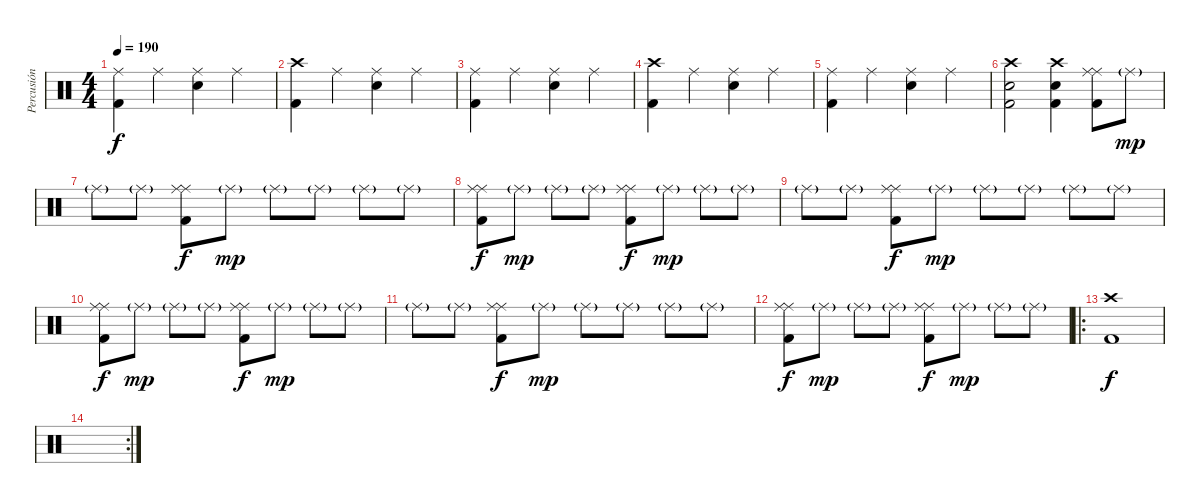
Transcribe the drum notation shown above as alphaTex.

\track ("Percusión" "Percusión") {instrument percussion}
\staff {score}
\articulation defaults
\ts (4 4)
\tempo 190
\clef neutral
\ks c
("Kick (hit) 2" "Ride (middle)").4{dy f} "Ride (middle)".4 ("Snare (hit) 2" "Ride (middle)").4 "Ride (middle)".4 |
("Kick (hit) 2" "Crash high (hit)").4 "Ride (middle)".4 ("Snare (hit) 2" "Ride (middle)").4 "Ride (middle)".4 |
("Kick (hit) 2" "Ride (middle)").4 "Ride (middle)".4 ("Snare (hit) 2" "Ride (middle)").4 "Ride (middle)".4 |
("Kick (hit) 2" "Crash high (hit)").4 "Ride (middle)".4 ("Snare (hit) 2" "Ride (middle)").4 "Ride (middle)".4 |
("Kick (hit) 2" "Ride (middle)").4 "Ride (middle)".4 ("Snare (hit) 2" "Ride (middle)").4 "Ride (middle)".4 |
("Kick (hit) 2" "Snare (hit) 2" "Crash high (hit)").2 ("Kick (hit) 2" "Snare (hit) 2" "Crash high (hit)").4 ("Kick (hit) 2" "Ride (middle)" "Ride (middle)").8 "Ride (middle)"{g}.8{dy mp} |
"Ride (middle)"{g}.8 "Ride (middle)"{g}.8 ("Kick (hit) 2" "Ride (middle)" "Ride (middle)").8{dy f} "Ride (middle)"{g}.8{dy mp} "Ride (middle)"{g}.8 "Ride (middle)"{g}.8 "Ride (middle)"{g}.8 "Ride (middle)"{g}.8 |
("Kick (hit) 2" "Ride (middle)" "Ride (middle)").8{dy f} "Ride (middle)"{g}.8{dy mp} "Ride (middle)"{g}.8 "Ride (middle)"{g}.8 ("Kick (hit) 2" "Ride (middle)" "Ride (middle)").8{dy f} "Ride (middle)"{g}.8{dy mp} "Ride (middle)"{g}.8 "Ride (middle)"{g}.8 |
"Ride (middle)"{g}.8 "Ride (middle)"{g}.8 ("Kick (hit) 2" "Ride (middle)" "Ride (middle)").8{dy f} "Ride (middle)"{g}.8{dy mp} "Ride (middle)"{g}.8 "Ride (middle)"{g}.8 "Ride (middle)"{g}.8 "Ride (middle)"{g}.8 |
("Kick (hit) 2" "Ride (middle)" "Ride (middle)").8{dy f} "Ride (middle)"{g}.8{dy mp} "Ride (middle)"{g}.8 "Ride (middle)"{g}.8 ("Kick (hit) 2" "Ride (middle)" "Ride (middle)").8{dy f} "Ride (middle)"{g}.8{dy mp} "Ride (middle)"{g}.8 "Ride (middle)"{g}.8 |
"Ride (middle)"{g}.8 "Ride (middle)"{g}.8 ("Kick (hit) 2" "Ride (middle)" "Ride (middle)").8{dy f} "Ride (middle)"{g}.8{dy mp} "Ride (middle)"{g}.8 "Ride (middle)"{g}.8 "Ride (middle)"{g}.8 "Ride (middle)"{g}.8 |
("Kick (hit) 2" "Ride (middle)" "Ride (middle)").8{dy f} "Ride (middle)"{g}.8{dy mp} "Ride (middle)"{g}.8 "Ride (middle)"{g}.8 ("Kick (hit) 2" "Ride (middle)" "Ride (middle)").8{dy f} "Ride (middle)"{g}.8{dy mp} "Ride (middle)"{g}.8 "Ride (middle)"{g}.8 |
\ro
("Kick (hit) 2" "Crash high (hit)").1{dy f volume 0} |
\rc 2
